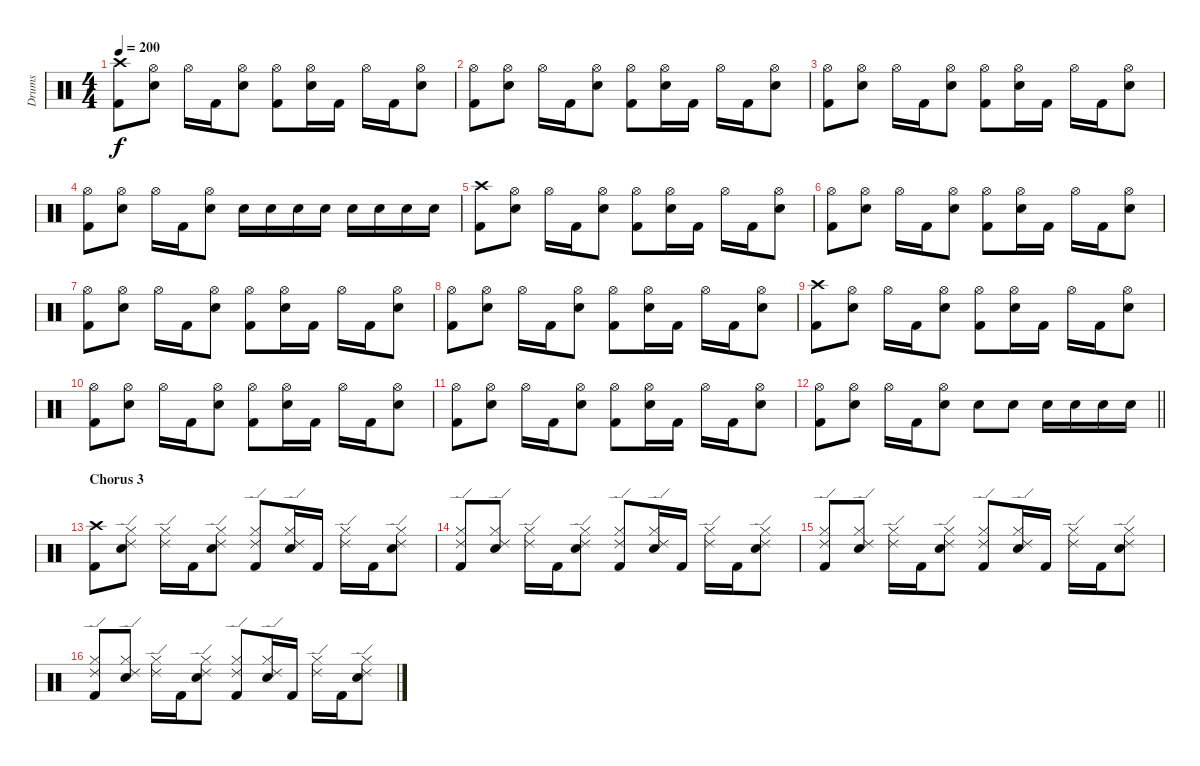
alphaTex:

\track ("Drums" "Drums") {instrument percussion}
\staff {score}
\articulation defaults
\ts (4 4)
\tempo 200
\clef neutral
\ks c
("Crash high (hit)" "Kick (hit) 2").8{dy f} ("Hi-Hat (open)" "Electric Snare (hit)").8 "Hi-Hat (open)".16 "Kick (hit) 2".16 ("Hi-Hat (open)" "Electric Snare (hit)").8 ("Hi-Hat (open)" "Kick (hit) 2").8 ("Hi-Hat (open)" "Electric Snare (hit)").16 "Kick (hit) 2".16 "Hi-Hat (open)".16 "Kick (hit) 2".16 ("Hi-Hat (open)" "Electric Snare (hit)").8 |
("Hi-Hat (open)" "Kick (hit) 2").8 ("Hi-Hat (open)" "Electric Snare (hit)").8 "Hi-Hat (open)".16 "Kick (hit) 2".16 ("Hi-Hat (open)" "Electric Snare (hit)").8 ("Hi-Hat (open)" "Kick (hit) 2").8 ("Hi-Hat (open)" "Electric Snare (hit)").16 "Kick (hit) 2".16 "Hi-Hat (open)".16 "Kick (hit) 2".16 ("Hi-Hat (open)" "Electric Snare (hit)").8 |
("Hi-Hat (open)" "Kick (hit) 2").8 ("Hi-Hat (open)" "Electric Snare (hit)").8 "Hi-Hat (open)".16 "Kick (hit) 2".16 ("Hi-Hat (open)" "Electric Snare (hit)").8 ("Hi-Hat (open)" "Kick (hit) 2").8 ("Hi-Hat (open)" "Electric Snare (hit)").16 "Kick (hit) 2".16 "Hi-Hat (open)".16 "Kick (hit) 2".16 ("Hi-Hat (open)" "Electric Snare (hit)").8 |
("Hi-Hat (open)" "Kick (hit) 2").8 ("Hi-Hat (open)" "Electric Snare (hit)").8 "Hi-Hat (open)".16 "Kick (hit) 2".16 ("Hi-Hat (open)" "Electric Snare (hit)").8 "Electric Snare (hit)".16 "Electric Snare (hit)".16 "Electric Snare (hit)".16 "Electric Snare (hit)".16 "Electric Snare (hit)".16 "Electric Snare (hit)".16 "Electric Snare (hit)".16 "Electric Snare (hit)".16 |
("Crash high (hit)" "Kick (hit) 2").8 ("Hi-Hat (open)" "Electric Snare (hit)").8 "Hi-Hat (open)".16 "Kick (hit) 2".16 ("Hi-Hat (open)" "Electric Snare (hit)").8 ("Hi-Hat (open)" "Kick (hit) 2").8 ("Hi-Hat (open)" "Electric Snare (hit)").16 "Kick (hit) 2".16 "Hi-Hat (open)".16 "Kick (hit) 2".16 ("Hi-Hat (open)" "Electric Snare (hit)").8 |
("Hi-Hat (open)" "Kick (hit) 2").8 ("Hi-Hat (open)" "Electric Snare (hit)").8 "Hi-Hat (open)".16 "Kick (hit) 2".16 ("Hi-Hat (open)" "Electric Snare (hit)").8 ("Hi-Hat (open)" "Kick (hit) 2").8 ("Hi-Hat (open)" "Electric Snare (hit)").16 "Kick (hit) 2".16 "Hi-Hat (open)".16 "Kick (hit) 2".16 ("Hi-Hat (open)" "Electric Snare (hit)").8 |
("Hi-Hat (open)" "Kick (hit) 2").8 ("Hi-Hat (open)" "Electric Snare (hit)").8 "Hi-Hat (open)".16 "Kick (hit) 2".16 ("Hi-Hat (open)" "Electric Snare (hit)").8 ("Hi-Hat (open)" "Kick (hit) 2").8 ("Hi-Hat (open)" "Electric Snare (hit)").16 "Kick (hit) 2".16 "Hi-Hat (open)".16 "Kick (hit) 2".16 ("Hi-Hat (open)" "Electric Snare (hit)").8 |
("Hi-Hat (open)" "Kick (hit) 2").8 ("Hi-Hat (open)" "Electric Snare (hit)").8 "Hi-Hat (open)".16 "Kick (hit) 2".16 ("Hi-Hat (open)" "Electric Snare (hit)").8 ("Hi-Hat (open)" "Kick (hit) 2").8 ("Hi-Hat (open)" "Electric Snare (hit)").16 "Kick (hit) 2".16 "Hi-Hat (open)".16 "Kick (hit) 2".16 ("Hi-Hat (open)" "Electric Snare (hit)").8 |
("Crash high (hit)" "Kick (hit) 2").8 ("Hi-Hat (open)" "Electric Snare (hit)").8 "Hi-Hat (open)".16 "Kick (hit) 2".16 ("Hi-Hat (open)" "Electric Snare (hit)").8 ("Hi-Hat (open)" "Kick (hit) 2").8 ("Hi-Hat (open)" "Electric Snare (hit)").16 "Kick (hit) 2".16 "Hi-Hat (open)".16 "Kick (hit) 2".16 ("Hi-Hat (open)" "Electric Snare (hit)").8 |
("Hi-Hat (open)" "Kick (hit) 2").8 ("Hi-Hat (open)" "Electric Snare (hit)").8 "Hi-Hat (open)".16 "Kick (hit) 2".16 ("Hi-Hat (open)" "Electric Snare (hit)").8 ("Hi-Hat (open)" "Kick (hit) 2").8 ("Hi-Hat (open)" "Electric Snare (hit)").16 "Kick (hit) 2".16 "Hi-Hat (open)".16 "Kick (hit) 2".16 ("Hi-Hat (open)" "Electric Snare (hit)").8 |
("Hi-Hat (open)" "Kick (hit) 2").8 ("Hi-Hat (open)" "Electric Snare (hit)").8 "Hi-Hat (open)".16 "Kick (hit) 2".16 ("Hi-Hat (open)" "Electric Snare (hit)").8 ("Hi-Hat (open)" "Kick (hit) 2").8 ("Hi-Hat (open)" "Electric Snare (hit)").16 "Kick (hit) 2".16 "Hi-Hat (open)".16 "Kick (hit) 2".16 ("Hi-Hat (open)" "Electric Snare (hit)").8 |
\barLineRight lightlight
("Hi-Hat (open)" "Kick (hit) 2").8 ("Hi-Hat (open)" "Electric Snare (hit)").8 "Hi-Hat (open)".16 "Kick (hit) 2".16 ("Hi-Hat (open)" "Electric Snare (hit)").8 "Electric Snare (hit)".8 "Electric Snare (hit)".8 "Electric Snare (hit)".16 "Electric Snare (hit)".16 "Electric Snare (hit)".16 "Electric Snare (hit)".16 |
\section ("" "Chorus 3")
("Crash high (hit)" "Kick (hit) 2").8 ("Hi-Hat (closed)" "Ride (edge) 2" "Electric Snare (hit)").8 ("Hi-Hat (closed)" "Ride (edge) 2").16 "Kick (hit) 2".16 ("Hi-Hat (closed)" "Ride (edge) 2" "Electric Snare (hit)").8 ("Hi-Hat (closed)" "Ride (edge) 2" "Kick (hit) 2").8 ("Hi-Hat (closed)" "Ride (edge) 2" "Electric Snare (hit)").16 "Kick (hit) 2".16 ("Hi-Hat (closed)" "Ride (edge) 2").16 "Kick (hit) 2".16 ("Hi-Hat (closed)" "Ride (edge) 2" "Electric Snare (hit)").8 |
("Hi-Hat (closed)" "Ride (edge) 2" "Kick (hit) 2").8 ("Hi-Hat (closed)" "Ride (edge) 2" "Electric Snare (hit)").8 ("Hi-Hat (closed)" "Ride (edge) 2").16 "Kick (hit) 2".16 ("Hi-Hat (closed)" "Ride (edge) 2" "Electric Snare (hit)").8 ("Hi-Hat (closed)" "Ride (edge) 2" "Kick (hit) 2").8 ("Hi-Hat (closed)" "Ride (edge) 2" "Electric Snare (hit)").16 "Kick (hit) 2".16 ("Hi-Hat (closed)" "Ride (edge) 2").16 "Kick (hit) 2".16 ("Hi-Hat (closed)" "Ride (edge) 2" "Electric Snare (hit)").8 |
("Hi-Hat (closed)" "Ride (edge) 2" "Kick (hit) 2").8 ("Hi-Hat (closed)" "Ride (edge) 2" "Electric Snare (hit)").8 ("Hi-Hat (closed)" "Ride (edge) 2").16 "Kick (hit) 2".16 ("Hi-Hat (closed)" "Ride (edge) 2" "Electric Snare (hit)").8 ("Hi-Hat (closed)" "Ride (edge) 2" "Kick (hit) 2").8 ("Hi-Hat (closed)" "Ride (edge) 2" "Electric Snare (hit)").16 "Kick (hit) 2".16 ("Hi-Hat (closed)" "Ride (edge) 2").16 "Kick (hit) 2".16 ("Hi-Hat (closed)" "Ride (edge) 2" "Electric Snare (hit)").8 |
("Hi-Hat (closed)" "Ride (edge) 2" "Kick (hit) 2").8 ("Hi-Hat (closed)" "Ride (edge) 2" "Electric Snare (hit)").8 ("Hi-Hat (closed)" "Ride (edge) 2").16 "Kick (hit) 2".16 ("Hi-Hat (closed)" "Ride (edge) 2" "Electric Snare (hit)").8 ("Hi-Hat (closed)" "Ride (edge) 2" "Kick (hit) 2").8 ("Hi-Hat (closed)" "Ride (edge) 2" "Electric Snare (hit)").16 "Kick (hit) 2".16 ("Hi-Hat (closed)" "Ride (edge) 2").16 "Kick (hit) 2".16 ("Hi-Hat (closed)" "Ride (edge) 2" "Electric Snare (hit)").8
